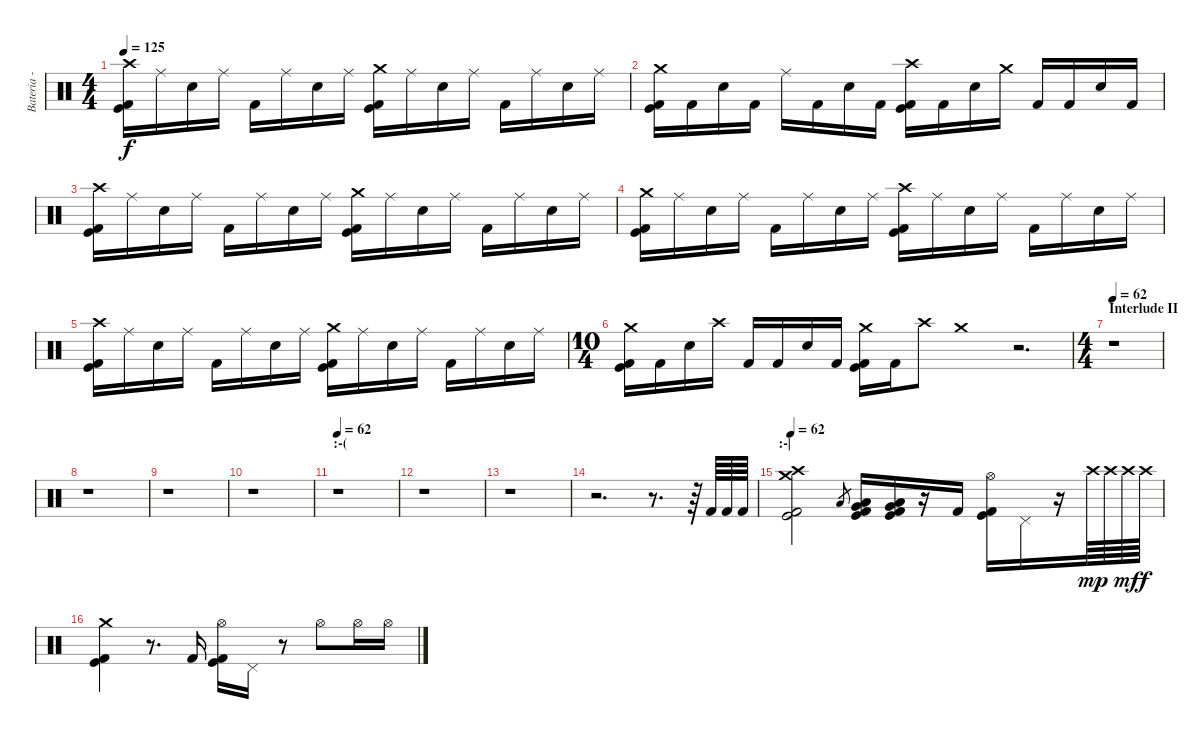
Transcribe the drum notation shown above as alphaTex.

\track ("Bateria - Drums" "Bateria - ") {instrument percussion}
\staff {score}
\articulation defaults
\ts (4 4)
\tempo 125
\clef neutral
\ks c
("Crash high (hit)" "Kick (hit)" "Kick (hit) 2").16{dy f} "Ride (middle)".16 "Electric Snare (hit)".16 "Ride (middle)".16 "Kick (hit) 2".16 "Ride (middle)".16 "Electric Snare (hit)".16 "Ride (middle)".16 ("Crash medium (hit)" "Kick (hit)" "Kick (hit) 2").16 "Ride (middle)".16 "Electric Snare (hit)".16 "Ride (middle)".16 "Kick (hit) 2".16 "Ride (middle)".16 "Electric Snare (hit)".16 "Ride (middle)".16 |
("Crash medium (hit)" "Kick (hit)" "Kick (hit) 2").16 "Kick (hit) 2".16 "Electric Snare (hit)".16 "Kick (hit) 2".16 "Ride (middle)".16 "Kick (hit) 2".16 "Electric Snare (hit)".16 "Kick (hit) 2".16 ("Crash high (hit)" "Kick (hit)" "Kick (hit) 2").16 "Kick (hit) 2".16 "Electric Snare (hit)".16 "Crash medium (hit)".16 "Kick (hit) 2".16 "Kick (hit) 2".16 "Electric Snare (hit)".16 "Kick (hit) 2".16 |
("Crash high (hit)" "Kick (hit)" "Kick (hit) 2").16 "Ride (middle)".16 "Electric Snare (hit)".16 "Ride (middle)".16 "Kick (hit) 2".16 "Ride (middle)".16 "Electric Snare (hit)".16 "Ride (middle)".16 ("Crash medium (hit)" "Kick (hit)" "Kick (hit) 2").16 "Ride (middle)".16 "Electric Snare (hit)".16 "Ride (middle)".16 "Kick (hit) 2".16 "Ride (middle)".16 "Electric Snare (hit)".16 "Ride (middle)".16 |
("Crash medium (hit)" "Kick (hit)" "Kick (hit) 2").16 "Ride (middle)".16 "Electric Snare (hit)".16 "Ride (middle)".16 "Kick (hit) 2".16 "Ride (middle)".16 "Electric Snare (hit)".16 "Ride (middle)".16 ("Crash high (hit)" "Kick (hit)" "Kick (hit) 2").16 "Ride (middle)".16 "Electric Snare (hit)".16 "Ride (middle)".16 "Kick (hit) 2".16 "Ride (middle)".16 "Electric Snare (hit)".16 "Ride (middle)".16 |
("Crash high (hit)" "Kick (hit)" "Kick (hit) 2").16 "Ride (middle)".16 "Electric Snare (hit)".16 "Ride (middle)".16 "Kick (hit) 2".16 "Ride (middle)".16 "Electric Snare (hit)".16 "Ride (middle)".16 ("Crash medium (hit)" "Kick (hit)" "Kick (hit) 2").16 "Ride (middle)".16 "Electric Snare (hit)".16 "Ride (middle)".16 "Kick (hit) 2".16 "Ride (middle)".16 "Electric Snare (hit)".16 "Ride (middle)".16 |
\ts (10 4)
("Crash medium (hit)" "Kick (hit)" "Kick (hit) 2").16 "Kick (hit) 2".16 "Electric Snare (hit)".16 "Crash high (hit)".16 "Kick (hit) 2".16 "Kick (hit) 2".16 "Electric Snare (hit)".16 "Kick (hit) 2".16 ("Crash medium (hit)" "Kick (hit)" "Kick (hit) 2").16 "Kick (hit) 2".16 "Crash high (hit)".8 "Crash medium (hit)".1 r.2{d} |
\ts (4 4)
\section ("" "Interlude II")
\tempo 62
r.1 |
r.1 |
r.1 |
r.1 |
\section ("" ":-(")
\tempo 62
r.1 |
r.1 |
r.1 |
r.2{d} r.8{d} r.64 "Kick (hit) 2".64 "Kick (hit) 2".64 "Kick (hit) 2".64 |
\section ("" ":-|")
\tempo 62
("Crash medium (hit)" "Crash high (hit)" "Kick (hit)" "Kick (hit) 2").2 "Low Tom (hit)".8{gr} ("Low Floor Tom (hit)" "Very Low Tom (hit)" "Kick (hit)" "Kick (hit) 2").16 ("Low Floor Tom (hit)" "Very Low Tom (hit)" "Kick (hit)" "Kick (hit) 2").16 r.16 "Kick (hit) 2".16 ("Hi-Hat (open)" "Kick (hit)" "Kick (hit) 2").16 "Pedal Hi-Hat (hit)".16 r.16 "Crash high (hit)".64{dy mp} "Crash high (hit)".64 "Crash high (hit)".64{dy mf} "Crash high (hit)".64{dy f} |
("Crash medium (hit)" "Kick (hit)" "Kick (hit) 2").4 r.8{d} "Kick (hit) 2".16 ("Hi-Hat (open)" "Kick (hit)" "Kick (hit) 2").16 "Pedal Hi-Hat (hit)".16 r.8 "Hi-Hat (open)".8 "Hi-Hat (open)".16 "Hi-Hat (open)".16
